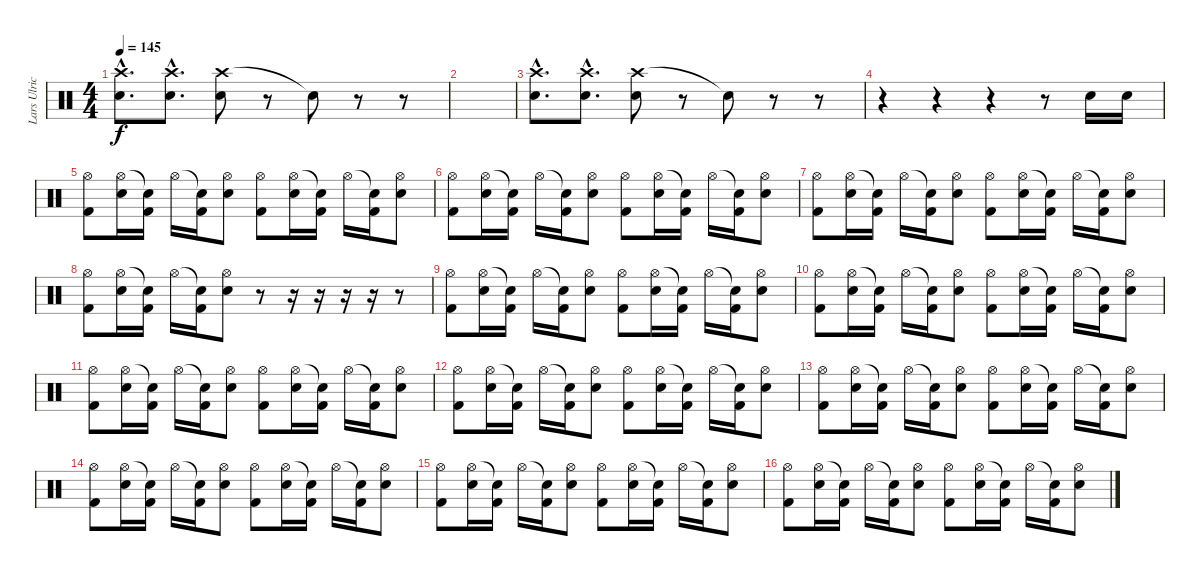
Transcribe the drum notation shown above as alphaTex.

\track ("Lars Ulrich" "Lars Ulric") {instrument percussion}
\staff {score}
\articulation defaults
\ts (4 4)
\tempo 145
\clef neutral
\ks c
("Crash high (hit)"{hac} "Electric Snare (hit)"{hac}).8{d dy f} ("Crash high (hit)"{hac} "Electric Snare (hit)"{hac}).8{d} ("Crash high (hit)" "Electric Snare (hit)").8 r.8 "Snare (hit)"{t}.8 r.8 r.8 |
|
("Crash high (hit)"{hac} "Electric Snare (hit)"{hac}).8{d} ("Crash high (hit)"{hac} "Electric Snare (hit)"{hac}).8{d} ("Crash high (hit)" "Electric Snare (hit)").8 r.8 "Snare (hit)"{t}.8 r.8 r.8 |
r.4 r.4 r.4 r.8 "Electric Snare (hit)".16 "Electric Snare (hit)".16 |
("Hi-Hat (open)" "Kick (hit) 2").8 ("Hi-Hat (open)" "Electric Snare (hit)").16 ("Snare (hit)"{t} "Kick (hit) 2").16 "Hi-Hat (open)".16 ("Snare (hit)"{t} "Kick (hit) 2").16 ("Hi-Hat (open)" "Electric Snare (hit)").8 ("Hi-Hat (open)" "Kick (hit) 2").8 ("Hi-Hat (open)" "Electric Snare (hit)").16 ("Snare (hit)"{t} "Kick (hit) 2").16 "Hi-Hat (open)".16 ("Snare (hit)"{t} "Kick (hit) 2").16 ("Hi-Hat (open)" "Electric Snare (hit)").8 |
("Hi-Hat (open)" "Kick (hit) 2").8 ("Hi-Hat (open)" "Electric Snare (hit)").16 ("Snare (hit)"{t} "Kick (hit) 2").16 "Hi-Hat (open)".16 ("Snare (hit)"{t} "Kick (hit) 2").16 ("Hi-Hat (open)" "Electric Snare (hit)").8 ("Hi-Hat (open)" "Kick (hit) 2").8 ("Hi-Hat (open)" "Electric Snare (hit)").16 ("Snare (hit)"{t} "Kick (hit) 2").16 "Hi-Hat (open)".16 ("Snare (hit)"{t} "Kick (hit) 2").16 ("Hi-Hat (open)" "Electric Snare (hit)").8 |
("Hi-Hat (open)" "Kick (hit) 2").8 ("Hi-Hat (open)" "Electric Snare (hit)").16 ("Snare (hit)"{t} "Kick (hit) 2").16 "Hi-Hat (open)".16 ("Snare (hit)"{t} "Kick (hit) 2").16 ("Hi-Hat (open)" "Electric Snare (hit)").8 ("Hi-Hat (open)" "Kick (hit) 2").8 ("Hi-Hat (open)" "Electric Snare (hit)").16 ("Snare (hit)"{t} "Kick (hit) 2").16 "Hi-Hat (open)".16 ("Snare (hit)"{t} "Kick (hit) 2").16 ("Hi-Hat (open)" "Electric Snare (hit)").8 |
("Hi-Hat (open)" "Kick (hit) 2").8 ("Hi-Hat (open)" "Electric Snare (hit)").16 ("Snare (hit)"{t} "Kick (hit) 2").16 "Hi-Hat (open)".16 ("Snare (hit)"{t} "Kick (hit) 2").16 ("Hi-Hat (open)" "Electric Snare (hit)").8 r.8 r.16 r.16 r.16 r.16 r.8 |
("Hi-Hat (open)" "Kick (hit) 2").8 ("Hi-Hat (open)" "Electric Snare (hit)").16 ("Snare (hit)"{t} "Kick (hit) 2").16 "Hi-Hat (open)".16 ("Snare (hit)"{t} "Kick (hit) 2").16 ("Hi-Hat (open)" "Electric Snare (hit)").8 ("Hi-Hat (open)" "Kick (hit) 2").8 ("Hi-Hat (open)" "Electric Snare (hit)").16 ("Snare (hit)"{t} "Kick (hit) 2").16 "Hi-Hat (open)".16 ("Snare (hit)"{t} "Kick (hit) 2").16 ("Hi-Hat (open)" "Electric Snare (hit)").8 |
("Hi-Hat (open)" "Kick (hit) 2").8 ("Hi-Hat (open)" "Electric Snare (hit)").16 ("Snare (hit)"{t} "Kick (hit) 2").16 "Hi-Hat (open)".16 ("Snare (hit)"{t} "Kick (hit) 2").16 ("Hi-Hat (open)" "Electric Snare (hit)").8 ("Hi-Hat (open)" "Kick (hit) 2").8 ("Hi-Hat (open)" "Electric Snare (hit)").16 ("Snare (hit)"{t} "Kick (hit) 2").16 "Hi-Hat (open)".16 ("Snare (hit)"{t} "Kick (hit) 2").16 ("Hi-Hat (open)" "Electric Snare (hit)").8 |
("Hi-Hat (open)" "Kick (hit) 2").8 ("Hi-Hat (open)" "Electric Snare (hit)").16 ("Snare (hit)"{t} "Kick (hit) 2").16 "Hi-Hat (open)".16 ("Snare (hit)"{t} "Kick (hit) 2").16 ("Hi-Hat (open)" "Electric Snare (hit)").8 ("Hi-Hat (open)" "Kick (hit) 2").8 ("Hi-Hat (open)" "Electric Snare (hit)").16 ("Snare (hit)"{t} "Kick (hit) 2").16 "Hi-Hat (open)".16 ("Snare (hit)"{t} "Kick (hit) 2").16 ("Hi-Hat (open)" "Electric Snare (hit)").8 |
("Hi-Hat (open)" "Kick (hit) 2").8 ("Hi-Hat (open)" "Electric Snare (hit)").16 ("Snare (hit)"{t} "Kick (hit) 2").16 "Hi-Hat (open)".16 ("Snare (hit)"{t} "Kick (hit) 2").16 ("Hi-Hat (open)" "Electric Snare (hit)").8 ("Hi-Hat (open)" "Kick (hit) 2").8 ("Hi-Hat (open)" "Electric Snare (hit)").16 ("Snare (hit)"{t} "Kick (hit) 2").16 "Hi-Hat (open)".16 ("Snare (hit)"{t} "Kick (hit) 2").16 ("Hi-Hat (open)" "Electric Snare (hit)").8 |
("Hi-Hat (open)" "Kick (hit) 2").8 ("Hi-Hat (open)" "Electric Snare (hit)").16 ("Snare (hit)"{t} "Kick (hit) 2").16 "Hi-Hat (open)".16 ("Snare (hit)"{t} "Kick (hit) 2").16 ("Hi-Hat (open)" "Electric Snare (hit)").8 ("Hi-Hat (open)" "Kick (hit) 2").8 ("Hi-Hat (open)" "Electric Snare (hit)").16 ("Snare (hit)"{t} "Kick (hit) 2").16 "Hi-Hat (open)".16 ("Snare (hit)"{t} "Kick (hit) 2").16 ("Hi-Hat (open)" "Electric Snare (hit)").8 |
("Hi-Hat (open)" "Kick (hit) 2").8 ("Hi-Hat (open)" "Electric Snare (hit)").16 ("Snare (hit)"{t} "Kick (hit) 2").16 "Hi-Hat (open)".16 ("Snare (hit)"{t} "Kick (hit) 2").16 ("Hi-Hat (open)" "Electric Snare (hit)").8 ("Hi-Hat (open)" "Kick (hit) 2").8 ("Hi-Hat (open)" "Electric Snare (hit)").16 ("Snare (hit)"{t} "Kick (hit) 2").16 "Hi-Hat (open)".16 ("Snare (hit)"{t} "Kick (hit) 2").16 ("Hi-Hat (open)" "Electric Snare (hit)").8 |
("Hi-Hat (open)" "Kick (hit) 2").8 ("Hi-Hat (open)" "Electric Snare (hit)").16 ("Snare (hit)"{t} "Kick (hit) 2").16 "Hi-Hat (open)".16 ("Snare (hit)"{t} "Kick (hit) 2").16 ("Hi-Hat (open)" "Electric Snare (hit)").8 ("Hi-Hat (open)" "Kick (hit) 2").8 ("Hi-Hat (open)" "Electric Snare (hit)").16 ("Snare (hit)"{t} "Kick (hit) 2").16 "Hi-Hat (open)".16 ("Snare (hit)"{t} "Kick (hit) 2").16 ("Hi-Hat (open)" "Electric Snare (hit)").8 |
("Hi-Hat (open)" "Kick (hit) 2").8 ("Hi-Hat (open)" "Electric Snare (hit)").16 ("Snare (hit)"{t} "Kick (hit) 2").16 "Hi-Hat (open)".16 ("Snare (hit)"{t} "Kick (hit) 2").16 ("Hi-Hat (open)" "Electric Snare (hit)").8 ("Hi-Hat (open)" "Kick (hit) 2").8 ("Hi-Hat (open)" "Electric Snare (hit)").16 ("Snare (hit)"{t} "Kick (hit) 2").16 "Hi-Hat (open)".16 ("Snare (hit)"{t} "Kick (hit) 2").16 ("Hi-Hat (open)" "Electric Snare (hit)").8
